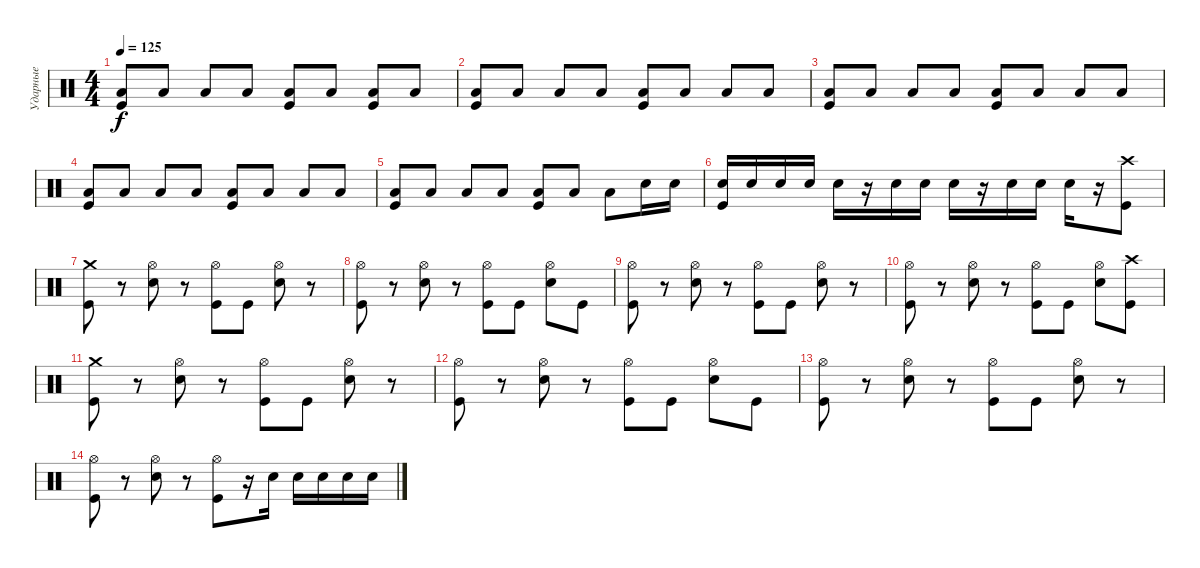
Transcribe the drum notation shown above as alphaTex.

\track ("Ударные" "Ударные") {instrument percussion}
\staff {score}
\articulation defaults
\ts (4 4)
\tempo 125
\clef neutral
\ks c
("Low Floor Tom (hit)" "Kick (hit)").8{dy f} "Low Floor Tom (hit)".8 "Low Floor Tom (hit)".8 "Low Floor Tom (hit)".8 ("Low Floor Tom (hit)" "Kick (hit)").8 "Low Floor Tom (hit)".8 ("Low Floor Tom (hit)" "Kick (hit)").8 "Low Floor Tom (hit)".8 |
("Low Floor Tom (hit)" "Kick (hit)").8 "Low Floor Tom (hit)".8 "Low Floor Tom (hit)".8 "Low Floor Tom (hit)".8 ("Low Floor Tom (hit)" "Kick (hit)").8 "Low Floor Tom (hit)".8 "Low Floor Tom (hit)".8 "Low Floor Tom (hit)".8 |
("Low Floor Tom (hit)" "Kick (hit)").8 "Low Floor Tom (hit)".8 "Low Floor Tom (hit)".8 "Low Floor Tom (hit)".8 ("Low Floor Tom (hit)" "Kick (hit)").8 "Low Floor Tom (hit)".8 "Low Floor Tom (hit)".8 "Low Floor Tom (hit)".8 |
("Low Floor Tom (hit)" "Kick (hit)").8 "Low Floor Tom (hit)".8 "Low Floor Tom (hit)".8 "Low Floor Tom (hit)".8 ("Low Floor Tom (hit)" "Kick (hit)").8 "Low Floor Tom (hit)".8 "Low Floor Tom (hit)".8 "Low Floor Tom (hit)".8 |
("Low Floor Tom (hit)" "Kick (hit)").8 "Low Floor Tom (hit)".8 "Low Floor Tom (hit)".8 "Low Floor Tom (hit)".8 ("Low Floor Tom (hit)" "Kick (hit)").8 "Low Floor Tom (hit)".8 "Low Floor Tom (hit)".8 "Electric Snare (hit)".16 "Electric Snare (hit)".16 |
("Electric Snare (hit)" "Kick (hit)").16 "Electric Snare (hit)".16 "Electric Snare (hit)".16 "Electric Snare (hit)".16 "Electric Snare (hit)".16 r.16 "Electric Snare (hit)".16 "Electric Snare (hit)".16 "Electric Snare (hit)".16 r.16 "Electric Snare (hit)".16 "Electric Snare (hit)".16 "Electric Snare (hit)".16 r.16 ("Crash high (hit)" "Kick (hit)").8 |
("Crash medium (hit)" "Kick (hit)").8 r.8 ("Hi-Hat (open)" "Electric Snare (hit)").8 r.8 ("Hi-Hat (open)" "Kick (hit)").8 "Kick (hit)".8 ("Hi-Hat (open)" "Electric Snare (hit)").8 r.8 |
("Hi-Hat (open)" "Kick (hit)").8 r.8 ("Hi-Hat (open)" "Electric Snare (hit)").8 r.8 ("Hi-Hat (open)" "Kick (hit)").8 "Kick (hit)".8 ("Hi-Hat (open)" "Electric Snare (hit)").8 "Kick (hit)".8 |
("Hi-Hat (open)" "Kick (hit)").8 r.8 ("Hi-Hat (open)" "Electric Snare (hit)").8 r.8 ("Hi-Hat (open)" "Kick (hit)").8 "Kick (hit)".8 ("Hi-Hat (open)" "Electric Snare (hit)").8 r.8 |
("Hi-Hat (open)" "Kick (hit)").8 r.8 ("Hi-Hat (open)" "Electric Snare (hit)").8 r.8 ("Hi-Hat (open)" "Kick (hit)").8 "Kick (hit)".8 ("Hi-Hat (open)" "Electric Snare (hit)").8 ("Crash high (hit)" "Kick (hit)").8 |
("Crash medium (hit)" "Kick (hit)").8 r.8 ("Hi-Hat (open)" "Electric Snare (hit)").8 r.8 ("Hi-Hat (open)" "Kick (hit)").8 "Kick (hit)".8 ("Hi-Hat (open)" "Electric Snare (hit)").8 r.8 |
("Hi-Hat (open)" "Kick (hit)").8 r.8 ("Hi-Hat (open)" "Electric Snare (hit)").8 r.8 ("Hi-Hat (open)" "Kick (hit)").8 "Kick (hit)".8 ("Hi-Hat (open)" "Electric Snare (hit)").8 "Kick (hit)".8 |
("Hi-Hat (open)" "Kick (hit)").8 r.8 ("Hi-Hat (open)" "Electric Snare (hit)").8 r.8 ("Hi-Hat (open)" "Kick (hit)").8 "Kick (hit)".8 ("Hi-Hat (open)" "Electric Snare (hit)").8 r.8 |
("Hi-Hat (open)" "Kick (hit)").8 r.8 ("Hi-Hat (open)" "Electric Snare (hit)").8 r.8 ("Hi-Hat (open)" "Kick (hit)").8 r.16 "Electric Snare (hit)".16 "Electric Snare (hit)".16 "Electric Snare (hit)".16 "Electric Snare (hit)".16 "Electric Snare (hit)".16
